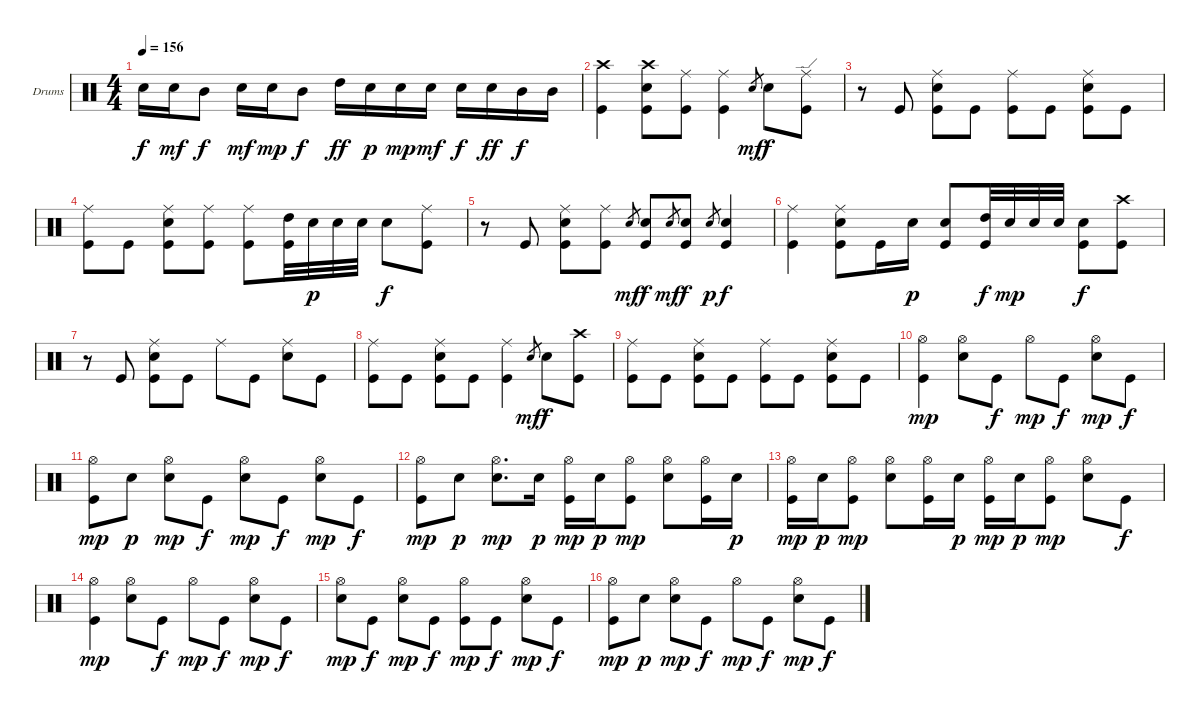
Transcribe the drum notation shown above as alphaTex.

\bracketExtendMode groupsimilarinstruments
\firstSystemTrackNameOrientation horizontal
\otherSystemsTrackNameOrientation horizontal
\track ("Drumkit" "Drums") {instrument percussion}
\staff {score}
\articulation defaults
\ts (4 4)
\tempo 156
\clef neutral
\ks c "Snare (hit) 2".16{dy f} "Snare (hit) 2".16{dy mf} "Mid Tom (hit)".8{dy f} "Snare (hit) 2".16{dy mf} "Snare (hit) 2".16{dy mp} "Mid Tom (hit)".8{dy f} "High Tom (hit)".16{dy ff} "Snare (hit) 2".16{dy p} "Snare (hit) 2".16{dy mp} "Snare (hit) 2".16{dy mf} "Snare (hit) 2".16{dy f} "Snare (hit) 2".16{dy ff} "Mid Tom (hit)".16{dy f} "Mid Tom (hit)".16
|
("Crash high (hit)" "Kick (hit)").4 ("Crash high (hit)" "Snare (hit) 2" "Kick (hit)").8 ("Ride (middle)" "Kick (hit)").8 ("Ride (middle)" "Kick (hit)").4 "Snare (hit) 2".8{gr dy mf} "Snare (hit) 2".8{dy f} ("Ride (edge)" "Kick (hit)").8 |
r.8 "Kick (hit)".8 ("Ride (middle)" "Snare (hit) 2" "Kick (hit)").8 "Kick (hit)".8 ("Ride (middle)" "Kick (hit)").8 "Kick (hit)".8 ("Ride (middle)" "Snare (hit) 2" "Kick (hit)").8 "Kick (hit)".8 |
("Ride (middle)" "Kick (hit)").8 "Kick (hit)".8 ("Ride (middle)" "Snare (hit) 2" "Kick (hit)").8 ("Ride (middle)" "Kick (hit)").8 ("Ride (middle)" "Kick (hit)").8 ("High Tom (hit)" "Kick (hit)").32 "Snare (hit) 2".32{dy p} "Snare (hit) 2".32 "Snare (hit) 2".32 "Snare (hit) 2".8{dy f} ("Ride (middle)" "Kick (hit)").8 |
r.8 "Kick (hit)".8 ("Ride (middle)" "Snare (hit) 2" "Kick (hit)").8 ("Ride (middle)" "Kick (hit)").8 "Snare (hit) 2".8{gr dy mf} ("Snare (hit) 2" "Kick (hit)").8{dy f} "Snare (hit) 2".8{gr dy mf} ("Snare (hit) 2" "Kick (hit)").8{dy f} "Snare (hit) 2".8{gr dy p} ("Snare (hit) 2" "Kick (hit)").4{dy f} |
("Ride (middle)" "Kick (hit)").4 ("Ride (middle)" "Snare (hit) 2" "Kick (hit)").8 "Kick (hit)".16 "Snare (hit) 2".16{dy p} ("Snare (hit) 2" "Kick (hit)").8 ("High Tom (hit)" "Kick (hit)").32{dy f} "Snare (hit) 2".32{dy mp} "Snare (hit) 2".32 "Snare (hit) 2".32 ("Snare (hit) 2" "Kick (hit)").8{dy f} ("Crash high (hit)" "Kick (hit)").8 |
r.8 "Kick (hit)".8 ("Ride (middle)" "Snare (hit) 2" "Kick (hit)").8 "Kick (hit)".8 "Ride (middle)".8 "Kick (hit)".8 ("Ride (middle)" "Snare (hit) 2").8 "Kick (hit)".8 |
("Ride (middle)" "Kick (hit)").8 "Kick (hit)".8 ("Ride (middle)" "Snare (hit) 2" "Kick (hit)").8 "Kick (hit)".8 ("Ride (middle)" "Kick (hit)").4 "Snare (hit) 2".8{gr dy mf} "Snare (hit) 2".8{dy f} ("Crash high (hit)" "Kick (hit)").8 |
("Ride (middle)" "Kick (hit)").8 "Kick (hit)".8 ("Ride (middle)" "Snare (hit) 2" "Kick (hit)").8 "Kick (hit)".8 ("Ride (middle)" "Kick (hit)").8 "Kick (hit)".8 ("Ride (middle)" "Snare (hit) 2" "Kick (hit)").8 "Kick (hit)".8 |
("Hi-Hat (open)" "Kick (hit)").4{dy mp} ("Hi-Hat (open)" "Snare (hit) 2").8 "Kick (hit)".8{dy f} "Hi-Hat (open)".8{dy mp} "Kick (hit)".8{dy f} ("Hi-Hat (open)" "Snare (hit) 2").8{dy mp} "Kick (hit)".8{dy f} |
("Hi-Hat (open)" "Kick (hit)").8{dy mp} "Snare (hit) 2".8{dy p} ("Hi-Hat (open)" "Snare (hit) 2").8{dy mp} "Kick (hit)".8{dy f} ("Hi-Hat (open)" "Snare (hit) 2").8{dy mp} "Kick (hit)".8{dy f} ("Hi-Hat (open)" "Snare (hit) 2").8{dy mp} "Kick (hit)".8{dy f} |
("Hi-Hat (open)" "Kick (hit)").8{dy mp} "Snare (hit) 2".8{dy p} ("Hi-Hat (open)" "Snare (hit) 2").8{d dy mp} "Snare (hit) 2".16{dy p} ("Hi-Hat (open)" "Kick (hit)").16{dy mp} "Snare (hit) 2".16{dy p} ("Hi-Hat (open)" "Kick (hit)").8{dy mp} ("Hi-Hat (open)" "Snare (hit) 2").8 ("Hi-Hat (open)" "Kick (hit)").16 "Snare (hit) 2".16{dy p} |
("Hi-Hat (open)" "Kick (hit)").16{dy mp} "Snare (hit) 2".16{dy p} ("Hi-Hat (open)" "Kick (hit)").8{dy mp} ("Hi-Hat (open)" "Snare (hit) 2").8 ("Hi-Hat (open)" "Kick (hit)").16 "Snare (hit) 2".16{dy p} ("Hi-Hat (open)" "Kick (hit)").16{dy mp} "Snare (hit) 2".16{dy p} ("Hi-Hat (open)" "Kick (hit)").8{dy mp} ("Hi-Hat (open)" "Snare (hit) 2").8 "Kick (hit)".8{dy f} |
("Hi-Hat (open)" "Kick (hit)").4{dy mp} ("Hi-Hat (open)" "Snare (hit) 2").8 "Kick (hit)".8{dy f} "Hi-Hat (open)".8{dy mp} "Kick (hit)".8{dy f} ("Hi-Hat (open)" "Snare (hit) 2").8{dy mp} "Kick (hit)".8{dy f} |
("Hi-Hat (open)" "Snare (hit) 2").8{dy mp} "Kick (hit)".8{dy f} ("Hi-Hat (open)" "Snare (hit) 2").8{dy mp} "Kick (hit)".8{dy f} ("Hi-Hat (open)" "Kick (hit)").8{dy mp} "Kick (hit)".8{dy f} ("Hi-Hat (open)" "Snare (hit) 2").8{dy mp} "Kick (hit)".8{dy f} |
("Hi-Hat (open)" "Kick (hit)").8{dy mp} "Snare (hit) 2".8{dy p} ("Hi-Hat (open)" "Snare (hit) 2").8{dy mp} "Kick (hit)".8{dy f} "Hi-Hat (open)".8{dy mp} "Kick (hit)".8{dy f} ("Hi-Hat (open)" "Snare (hit) 2").8{dy mp} "Kick (hit)".8{dy f}
